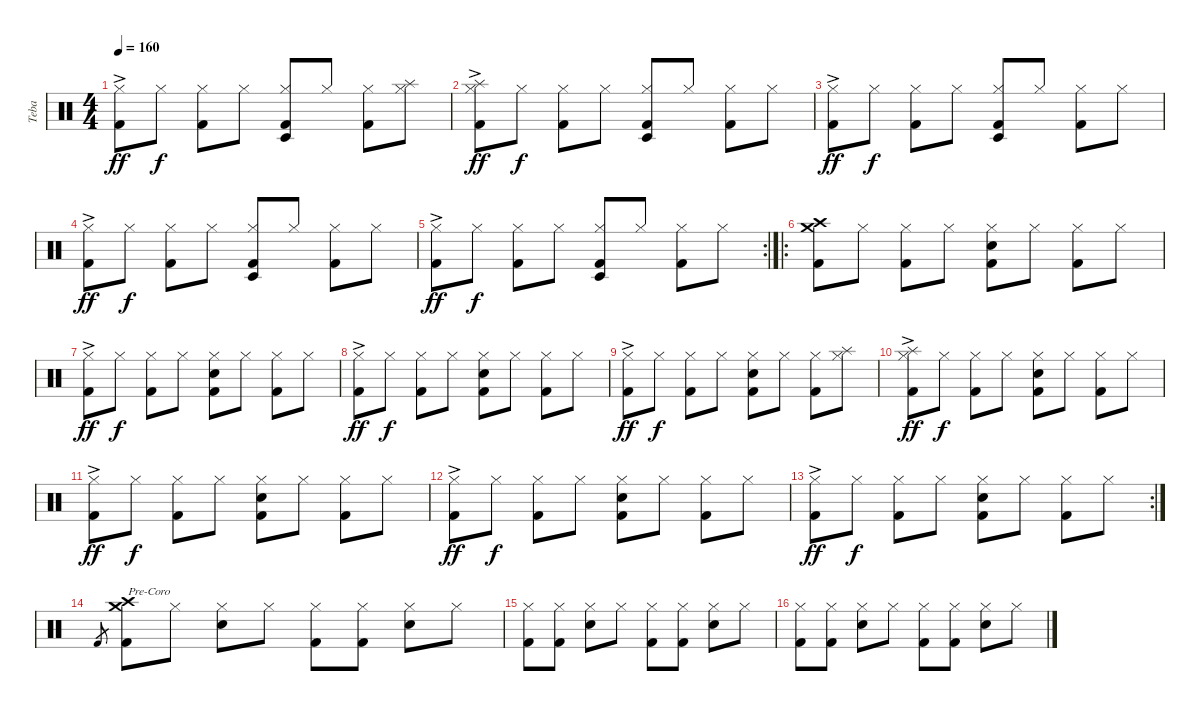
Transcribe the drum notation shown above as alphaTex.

\track ("Teba" "Teba") {instrument percussion}
\staff {score}
\articulation defaults
\ts (4 4)
\tempo 160
\clef neutral
\ks c
("Hi-Hat (closed)" "Kick (hit) 2"{ac}).8{dy ff} "Hi-Hat (closed)".8{dy f} ("Hi-Hat (closed)" "Kick (hit) 2").8 "Hi-Hat (closed)".8 ("Hi-Hat (closed)" "Timbale low (hit)" "Kick (hit) 2").8 "Hi-Hat (closed)".8 ("Hi-Hat (closed)" "Kick (hit) 2").8 ("Splash (hit)" "Hi-Hat (closed)").8 |
("Splash (hit)" "Hi-Hat (closed)" "Kick (hit) 2"{ac}).8{dy ff} "Hi-Hat (closed)".8{dy f} ("Hi-Hat (closed)" "Kick (hit) 2").8 "Hi-Hat (closed)".8 ("Hi-Hat (closed)" "Timbale low (hit)" "Kick (hit) 2").8 "Hi-Hat (closed)".8 ("Hi-Hat (closed)" "Kick (hit) 2").8 "Hi-Hat (closed)".8 |
("Hi-Hat (closed)" "Kick (hit) 2"{ac}).8{dy ff} "Hi-Hat (closed)".8{dy f} ("Hi-Hat (closed)" "Kick (hit) 2").8 "Hi-Hat (closed)".8 ("Hi-Hat (closed)" "Timbale low (hit)" "Kick (hit) 2").8 "Hi-Hat (closed)".8 ("Hi-Hat (closed)" "Kick (hit) 2").8 "Hi-Hat (closed)".8 |
("Hi-Hat (closed)" "Kick (hit) 2"{ac}).8{dy ff} "Hi-Hat (closed)".8{dy f} ("Hi-Hat (closed)" "Kick (hit) 2").8 "Hi-Hat (closed)".8 ("Hi-Hat (closed)" "Timbale low (hit)" "Kick (hit) 2").8 "Hi-Hat (closed)".8 ("Hi-Hat (closed)" "Kick (hit) 2").8 "Hi-Hat (closed)".8 |
\rc 2
("Hi-Hat (closed)" "Kick (hit) 2"{ac}).8{dy ff} "Hi-Hat (closed)".8{dy f} ("Hi-Hat (closed)" "Kick (hit) 2").8 "Hi-Hat (closed)".8 ("Hi-Hat (closed)" "Timbale low (hit)" "Kick (hit) 2").8 "Hi-Hat (closed)".8 ("Hi-Hat (closed)" "Kick (hit) 2").8 "Hi-Hat (closed)".8 |
\ro
("Crash medium (hit)" "Crash high (hit)" "Kick (hit) 2").8 "Hi-Hat (closed)".8 ("Hi-Hat (closed)" "Kick (hit) 2").8 "Hi-Hat (closed)".8 ("Hi-Hat (closed)" "Electric Snare (hit)" "Kick (hit) 2").8 "Hi-Hat (closed)".8 ("Hi-Hat (closed)" "Kick (hit) 2").8 "Hi-Hat (closed)".8 |
("Hi-Hat (closed)" "Kick (hit) 2"{ac}).8{dy ff} "Hi-Hat (closed)".8{dy f} ("Hi-Hat (closed)" "Kick (hit) 2").8 "Hi-Hat (closed)".8 ("Hi-Hat (closed)" "Electric Snare (hit)" "Kick (hit) 2").8 "Hi-Hat (closed)".8 ("Hi-Hat (closed)" "Kick (hit) 2").8 "Hi-Hat (closed)".8 |
("Hi-Hat (closed)" "Kick (hit) 2"{ac}).8{dy ff} "Hi-Hat (closed)".8{dy f} ("Hi-Hat (closed)" "Kick (hit) 2").8 "Hi-Hat (closed)".8 ("Hi-Hat (closed)" "Electric Snare (hit)" "Kick (hit) 2").8 "Hi-Hat (closed)".8 ("Hi-Hat (closed)" "Kick (hit) 2").8 "Hi-Hat (closed)".8 |
("Hi-Hat (closed)" "Kick (hit) 2"{ac}).8{dy ff} "Hi-Hat (closed)".8{dy f} ("Hi-Hat (closed)" "Kick (hit) 2").8 "Hi-Hat (closed)".8 ("Hi-Hat (closed)" "Electric Snare (hit)" "Kick (hit) 2").8 "Hi-Hat (closed)".8 ("Hi-Hat (closed)" "Kick (hit) 2").8 ("Splash (hit)" "Hi-Hat (closed)").8 |
("Splash (hit)" "Hi-Hat (closed)" "Kick (hit) 2"{ac}).8{dy ff} "Hi-Hat (closed)".8{dy f} ("Hi-Hat (closed)" "Kick (hit) 2").8 "Hi-Hat (closed)".8 ("Hi-Hat (closed)" "Electric Snare (hit)" "Kick (hit) 2").8 "Hi-Hat (closed)".8 ("Hi-Hat (closed)" "Kick (hit) 2").8 "Hi-Hat (closed)".8 |
("Hi-Hat (closed)" "Kick (hit) 2"{ac}).8{dy ff} "Hi-Hat (closed)".8{dy f} ("Hi-Hat (closed)" "Kick (hit) 2").8 "Hi-Hat (closed)".8 ("Hi-Hat (closed)" "Electric Snare (hit)" "Kick (hit) 2").8 "Hi-Hat (closed)".8 ("Hi-Hat (closed)" "Kick (hit) 2").8 "Hi-Hat (closed)".8 |
("Hi-Hat (closed)" "Kick (hit) 2"{ac}).8{dy ff} "Hi-Hat (closed)".8{dy f} ("Hi-Hat (closed)" "Kick (hit) 2").8 "Hi-Hat (closed)".8 ("Hi-Hat (closed)" "Electric Snare (hit)" "Kick (hit) 2").8 "Hi-Hat (closed)".8 ("Hi-Hat (closed)" "Kick (hit) 2").8 "Hi-Hat (closed)".8 |
\rc 2
("Hi-Hat (closed)" "Kick (hit) 2"{ac}).8{dy ff} "Hi-Hat (closed)".8{dy f} ("Hi-Hat (closed)" "Kick (hit) 2").8 "Hi-Hat (closed)".8 ("Hi-Hat (closed)" "Electric Snare (hit)" "Kick (hit) 2").8 "Hi-Hat (closed)".8 ("Hi-Hat (closed)" "Kick (hit) 2").8 "Hi-Hat (closed)".8 |
"Kick (hit) 2"{h}.8{gr} ("Crash medium (hit)" "Crash high (hit)" "Kick (hit) 2").8{txt "Pre-Coro"} "Hi-Hat (closed)".8 ("Hi-Hat (closed)" "Electric Snare (hit)").8 "Hi-Hat (closed)".8 ("Hi-Hat (closed)" "Kick (hit) 2").8 ("Hi-Hat (closed)" "Kick (hit) 2").8 ("Hi-Hat (closed)" "Electric Snare (hit)").8 "Hi-Hat (closed)".8 |
("Hi-Hat (closed)" "Kick (hit) 2").8 ("Hi-Hat (closed)" "Kick (hit) 2").8 ("Hi-Hat (closed)" "Electric Snare (hit)").8 "Hi-Hat (closed)".8 ("Hi-Hat (closed)" "Kick (hit) 2").8 ("Hi-Hat (closed)" "Kick (hit) 2").8 ("Hi-Hat (closed)" "Electric Snare (hit)").8 "Hi-Hat (closed)".8 |
("Hi-Hat (closed)" "Kick (hit) 2").8 ("Hi-Hat (closed)" "Kick (hit) 2").8 ("Hi-Hat (closed)" "Electric Snare (hit)").8 "Hi-Hat (closed)".8 ("Hi-Hat (closed)" "Kick (hit) 2").8 ("Hi-Hat (closed)" "Kick (hit) 2").8 ("Hi-Hat (closed)" "Electric Snare (hit)").8 "Hi-Hat (closed)".8
